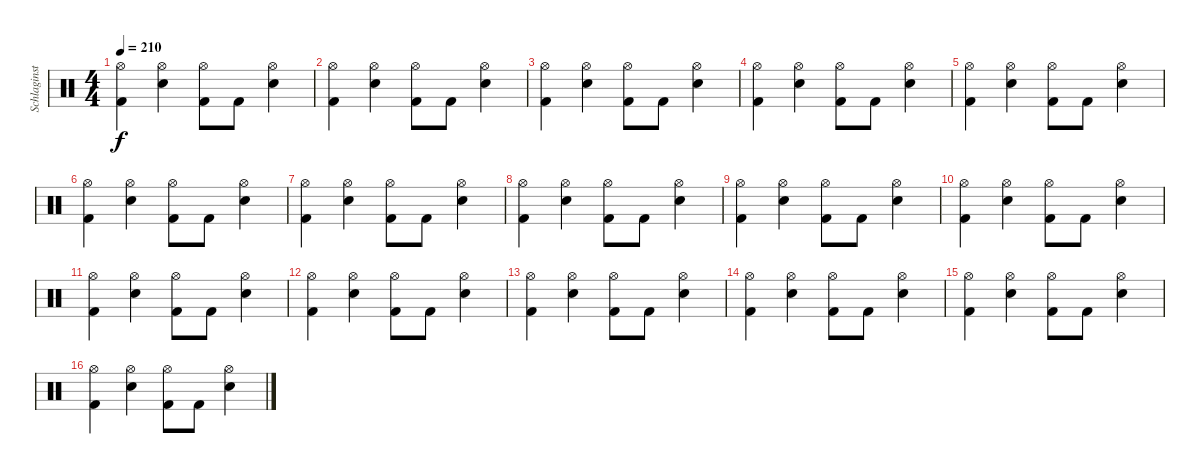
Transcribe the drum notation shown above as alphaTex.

\track ("Schlaginstrumente - Auswahl" "Schlaginst") {instrument percussion}
\staff {score}
\articulation defaults
\ts (4 4)
\tempo 210
\clef neutral
\ks c
("Hi-Hat (open)" "Kick (hit) 2").4{dy f} ("Hi-Hat (open)" "Electric Snare (hit)").4 ("Hi-Hat (open)" "Kick (hit) 2").8 "Kick (hit) 2".8 ("Hi-Hat (open)" "Electric Snare (hit)").4 |
("Hi-Hat (open)" "Kick (hit) 2").4 ("Hi-Hat (open)" "Electric Snare (hit)").4 ("Hi-Hat (open)" "Kick (hit) 2").8 "Kick (hit) 2".8 ("Hi-Hat (open)" "Electric Snare (hit)").4 |
("Hi-Hat (open)" "Kick (hit) 2").4 ("Hi-Hat (open)" "Electric Snare (hit)").4 ("Hi-Hat (open)" "Kick (hit) 2").8 "Kick (hit) 2".8 ("Hi-Hat (open)" "Electric Snare (hit)").4 |
("Hi-Hat (open)" "Kick (hit) 2").4 ("Hi-Hat (open)" "Electric Snare (hit)").4 ("Hi-Hat (open)" "Kick (hit) 2").8 "Kick (hit) 2".8 ("Hi-Hat (open)" "Electric Snare (hit)").4 |
("Hi-Hat (open)" "Kick (hit) 2").4 ("Hi-Hat (open)" "Electric Snare (hit)").4 ("Hi-Hat (open)" "Kick (hit) 2").8 "Kick (hit) 2".8 ("Hi-Hat (open)" "Electric Snare (hit)").4 |
("Hi-Hat (open)" "Kick (hit) 2").4 ("Hi-Hat (open)" "Electric Snare (hit)").4 ("Hi-Hat (open)" "Kick (hit) 2").8 "Kick (hit) 2".8 ("Hi-Hat (open)" "Electric Snare (hit)").4 |
("Hi-Hat (open)" "Kick (hit) 2").4 ("Hi-Hat (open)" "Electric Snare (hit)").4 ("Hi-Hat (open)" "Kick (hit) 2").8 "Kick (hit) 2".8 ("Hi-Hat (open)" "Electric Snare (hit)").4 |
("Hi-Hat (open)" "Kick (hit) 2").4 ("Hi-Hat (open)" "Electric Snare (hit)").4 ("Hi-Hat (open)" "Kick (hit) 2").8 "Kick (hit) 2".8 ("Hi-Hat (open)" "Electric Snare (hit)").4 |
("Hi-Hat (open)" "Kick (hit) 2").4 ("Hi-Hat (open)" "Electric Snare (hit)").4 ("Hi-Hat (open)" "Kick (hit) 2").8 "Kick (hit) 2".8 ("Hi-Hat (open)" "Electric Snare (hit)").4 |
("Hi-Hat (open)" "Kick (hit) 2").4 ("Hi-Hat (open)" "Electric Snare (hit)").4 ("Hi-Hat (open)" "Kick (hit) 2").8 "Kick (hit) 2".8 ("Hi-Hat (open)" "Electric Snare (hit)").4 |
("Hi-Hat (open)" "Kick (hit) 2").4 ("Hi-Hat (open)" "Electric Snare (hit)").4 ("Hi-Hat (open)" "Kick (hit) 2").8 "Kick (hit) 2".8 ("Hi-Hat (open)" "Electric Snare (hit)").4 |
("Hi-Hat (open)" "Kick (hit) 2").4 ("Hi-Hat (open)" "Electric Snare (hit)").4 ("Hi-Hat (open)" "Kick (hit) 2").8 "Kick (hit) 2".8 ("Hi-Hat (open)" "Electric Snare (hit)").4 |
("Hi-Hat (open)" "Kick (hit) 2").4 ("Hi-Hat (open)" "Electric Snare (hit)").4 ("Hi-Hat (open)" "Kick (hit) 2").8 "Kick (hit) 2".8 ("Hi-Hat (open)" "Electric Snare (hit)").4 |
("Hi-Hat (open)" "Kick (hit) 2").4 ("Hi-Hat (open)" "Electric Snare (hit)").4 ("Hi-Hat (open)" "Kick (hit) 2").8 "Kick (hit) 2".8 ("Hi-Hat (open)" "Electric Snare (hit)").4 |
("Hi-Hat (open)" "Kick (hit) 2").4 ("Hi-Hat (open)" "Electric Snare (hit)").4 ("Hi-Hat (open)" "Kick (hit) 2").8 "Kick (hit) 2".8 ("Hi-Hat (open)" "Electric Snare (hit)").4 |
("Hi-Hat (open)" "Kick (hit) 2").4 ("Hi-Hat (open)" "Electric Snare (hit)").4 ("Hi-Hat (open)" "Kick (hit) 2").8 "Kick (hit) 2".8 ("Hi-Hat (open)" "Electric Snare (hit)").4
